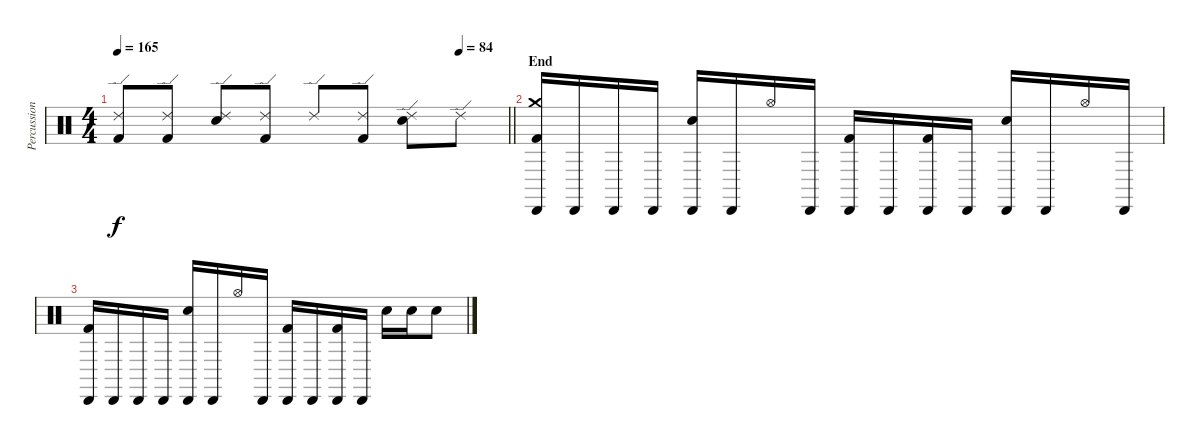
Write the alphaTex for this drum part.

\track ("Percussions" "Percussion") {instrument percussion}
\staff
\articulation defaults
\ts (4 4)
\tempo 165
\tempo (84 0.875)
\clef neutral
\barLineRight lightlight
\ks c
("Ride (edge) 2" "Kick (hit) 2").8{dy f} ("Ride (edge) 2" "Kick (hit) 2").8 ("Ride (edge) 2" "Electric Snare (hit)").8 ("Ride (edge) 2" "Kick (hit) 2").8 "Ride (edge) 2".8 ("Ride (edge) 2" "Kick (hit) 2").8 ("Ride (edge) 2" "Electric Snare (hit)").8 "Ride (edge) 2".8 |
\section ("" "End")
("Cabasa (hit)" "Crash medium (hit)" "Kick (hit) 2").16 "Cabasa (hit)".16 "Cabasa (hit)".16 "Cabasa (hit)".16 ("Cabasa (hit)" "Electric Snare (hit)").16 "Cabasa (hit)".16 "Hi-Hat (open)".16 "Cabasa (hit)".16 ("Cabasa (hit)" "Kick (hit) 2").16 "Cabasa (hit)".16 ("Cabasa (hit)" "Kick (hit) 2").16 "Cabasa (hit)".16 ("Cabasa (hit)" "Electric Snare (hit)").16 "Cabasa (hit)".16 "Hi-Hat (open)".16 "Cabasa (hit)".16 |
("Cabasa (hit)" "Kick (hit) 2").16 "Cabasa (hit)".16 "Cabasa (hit)".16 "Cabasa (hit)".16 ("Cabasa (hit)" "Electric Snare (hit)").16 "Cabasa (hit)".16 "Hi-Hat (open)".16 "Cabasa (hit)".16 ("Cabasa (hit)" "Kick (hit) 2").16 "Cabasa (hit)".16 ("Cabasa (hit)" "Kick (hit) 2").16 "Cabasa (hit)".16 "Electric Snare (hit)".16 "Electric Snare (hit)".16 "Electric Snare (hit)".8
